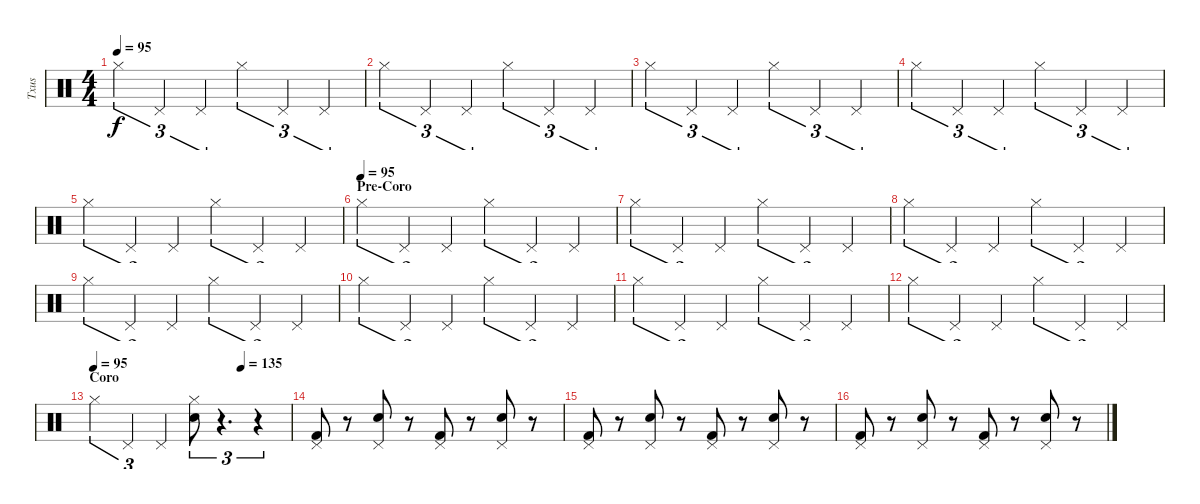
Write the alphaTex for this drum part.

\track ("Txus" "Txus") {instrument percussion}
\staff {score}
\articulation defaults
\ts (4 4)
\tempo 95
\clef neutral
\ks c "Hi-Hat (closed)".4{tu (3 2) dy f} "Pedal Hi-Hat (hit)".4{tu (3 2)} "Pedal Hi-Hat (hit)".4{tu (3 2)} "Hi-Hat (closed)".4{tu (3 2)} "Pedal Hi-Hat (hit)".4{tu (3 2)} "Pedal Hi-Hat (hit)".4{tu (3 2)}
|
"Hi-Hat (closed)".4{tu (3 2)} "Pedal Hi-Hat (hit)".4{tu (3 2)} "Pedal Hi-Hat (hit)".4{tu (3 2)} "Hi-Hat (closed)".4{tu (3 2)} "Pedal Hi-Hat (hit)".4{tu (3 2)} "Pedal Hi-Hat (hit)".4{tu (3 2)} |
"Hi-Hat (closed)".4{tu (3 2)} "Pedal Hi-Hat (hit)".4{tu (3 2)} "Pedal Hi-Hat (hit)".4{tu (3 2)} "Hi-Hat (closed)".4{tu (3 2)} "Pedal Hi-Hat (hit)".4{tu (3 2)} "Pedal Hi-Hat (hit)".4{tu (3 2)} |
"Hi-Hat (closed)".4{tu (3 2)} "Pedal Hi-Hat (hit)".4{tu (3 2)} "Pedal Hi-Hat (hit)".4{tu (3 2)} "Hi-Hat (closed)".4{tu (3 2)} "Pedal Hi-Hat (hit)".4{tu (3 2)} "Pedal Hi-Hat (hit)".4{tu (3 2)} |
"Hi-Hat (closed)".4{tu (3 2)} "Pedal Hi-Hat (hit)".4{tu (3 2)} "Pedal Hi-Hat (hit)".4{tu (3 2)} "Hi-Hat (closed)".4{tu (3 2)} "Pedal Hi-Hat (hit)".4{tu (3 2)} "Pedal Hi-Hat (hit)".4{tu (3 2)} |
\section ("" "Pre-Coro")
\tempo (95)
"Hi-Hat (closed)".4{tu (3 2)} "Pedal Hi-Hat (hit)".4{tu (3 2)} "Pedal Hi-Hat (hit)".4{tu (3 2)} "Hi-Hat (closed)".4{tu (3 2)} "Pedal Hi-Hat (hit)".4{tu (3 2)} "Pedal Hi-Hat (hit)".4{tu (3 2)} |
"Hi-Hat (closed)".4{tu (3 2)} "Pedal Hi-Hat (hit)".4{tu (3 2)} "Pedal Hi-Hat (hit)".4{tu (3 2)} "Hi-Hat (closed)".4{tu (3 2)} "Pedal Hi-Hat (hit)".4{tu (3 2)} "Pedal Hi-Hat (hit)".4{tu (3 2)} |
"Hi-Hat (closed)".4{tu (3 2)} "Pedal Hi-Hat (hit)".4{tu (3 2)} "Pedal Hi-Hat (hit)".4{tu (3 2)} "Hi-Hat (closed)".4{tu (3 2)} "Pedal Hi-Hat (hit)".4{tu (3 2)} "Pedal Hi-Hat (hit)".4{tu (3 2)} |
"Hi-Hat (closed)".4{tu (3 2)} "Pedal Hi-Hat (hit)".4{tu (3 2)} "Pedal Hi-Hat (hit)".4{tu (3 2)} "Hi-Hat (closed)".4{tu (3 2)} "Pedal Hi-Hat (hit)".4{tu (3 2)} "Pedal Hi-Hat (hit)".4{tu (3 2)} |
"Hi-Hat (closed)".4{tu (3 2)} "Pedal Hi-Hat (hit)".4{tu (3 2)} "Pedal Hi-Hat (hit)".4{tu (3 2)} "Hi-Hat (closed)".4{tu (3 2)} "Pedal Hi-Hat (hit)".4{tu (3 2)} "Pedal Hi-Hat (hit)".4{tu (3 2)} |
"Hi-Hat (closed)".4{tu (3 2)} "Pedal Hi-Hat (hit)".4{tu (3 2)} "Pedal Hi-Hat (hit)".4{tu (3 2)} "Hi-Hat (closed)".4{tu (3 2)} "Pedal Hi-Hat (hit)".4{tu (3 2)} "Pedal Hi-Hat (hit)".4{tu (3 2)} |
"Hi-Hat (closed)".4{tu (3 2)} "Pedal Hi-Hat (hit)".4{tu (3 2)} "Pedal Hi-Hat (hit)".4{tu (3 2)} "Hi-Hat (closed)".4{tu (3 2)} "Pedal Hi-Hat (hit)".4{tu (3 2)} "Pedal Hi-Hat (hit)".4{tu (3 2)} |
\section ("" "Coro")
\tempo 95
\tempo (135 0.75)
"Hi-Hat (closed)".4{tu (3 2)} "Pedal Hi-Hat (hit)".4{tu (3 2)} "Pedal Hi-Hat (hit)".4{tu (3 2)} ("Hi-Hat (closed)" "Snare (hit) 2").8{tu (3 2)} r.4{d tu (3 2)} r.4{tu (3 2)} |
("Pedal Hi-Hat (hit)" "Kick (hit) 2").8 r.8 ("Pedal Hi-Hat (hit)" "Snare (hit) 2").8 r.8 ("Pedal Hi-Hat (hit)" "Kick (hit) 2").8 r.8 ("Pedal Hi-Hat (hit)" "Snare (hit) 2").8 r.8 |
("Pedal Hi-Hat (hit)" "Kick (hit) 2").8 r.8 ("Pedal Hi-Hat (hit)" "Snare (hit) 2").8 r.8 ("Pedal Hi-Hat (hit)" "Kick (hit) 2").8 r.8 ("Pedal Hi-Hat (hit)" "Snare (hit) 2").8 r.8 |
("Pedal Hi-Hat (hit)" "Kick (hit) 2").8 r.8 ("Pedal Hi-Hat (hit)" "Snare (hit) 2").8 r.8 ("Pedal Hi-Hat (hit)" "Kick (hit) 2").8 r.8 ("Pedal Hi-Hat (hit)" "Snare (hit) 2").8 r.8
